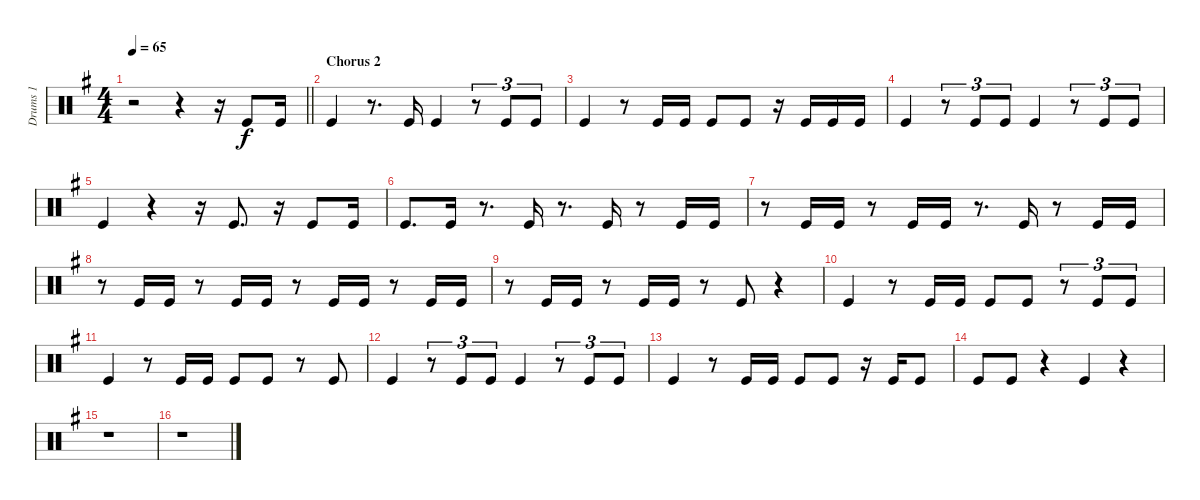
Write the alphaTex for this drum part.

\track ("Drums 1" "Drums 1") {instrument percussion}
\staff {score}
\articulation defaults
\ts (4 4)
\tempo 65
\clef neutral
\barLineRight lightlight
\ks g
r.2{dy f} r.4 r.16 "Kick (hit)".8 "Kick (hit)".16 |
\section ("" "Chorus 2")
"Kick (hit)".4 r.8{d} "Kick (hit)".16 "Kick (hit)".4 r.8{tu (3 2)} "Kick (hit)".8{tu (3 2)} "Kick (hit)".8{tu (3 2)} |
"Kick (hit)".4 r.8 "Kick (hit)".16 "Kick (hit)".16 "Kick (hit)".8 "Kick (hit)".8 r.16 "Kick (hit)".16 "Kick (hit)".16 "Kick (hit)".16 |
"Kick (hit)".4 r.8{tu (3 2)} "Kick (hit)".8{tu (3 2)} "Kick (hit)".8{tu (3 2)} "Kick (hit)".4 r.8{tu (3 2)} "Kick (hit)".8{tu (3 2)} "Kick (hit)".8{tu (3 2)} |
"Kick (hit)".4 r.4 r.16 "Kick (hit)".8{d} r.16 "Kick (hit)".8 "Kick (hit)".16 |
"Kick (hit)".8{d} "Kick (hit)".16 r.8{d} "Kick (hit)".16 r.8{d} "Kick (hit)".16 r.8 "Kick (hit)".16 "Kick (hit)".16 |
r.8 "Kick (hit)".16 "Kick (hit)".16 r.8 "Kick (hit)".16 "Kick (hit)".16 r.8{d} "Kick (hit)".16 r.8 "Kick (hit)".16 "Kick (hit)".16 |
r.8 "Kick (hit)".16 "Kick (hit)".16 r.8 "Kick (hit)".16 "Kick (hit)".16 r.8 "Kick (hit)".16 "Kick (hit)".16 r.8 "Kick (hit)".16 "Kick (hit)".16 |
r.8 "Kick (hit)".16 "Kick (hit)".16 r.8 "Kick (hit)".16 "Kick (hit)".16 r.8 "Kick (hit)".8 r.4 |
"Kick (hit)".4 r.8 "Kick (hit)".16 "Kick (hit)".16 "Kick (hit)".8 "Kick (hit)".8 r.8{tu (3 2)} "Kick (hit)".8{tu (3 2)} "Kick (hit)".8{tu (3 2)} |
"Kick (hit)".4 r.8 "Kick (hit)".16 "Kick (hit)".16 "Kick (hit)".8 "Kick (hit)".8 r.8 "Kick (hit)".8 |
"Kick (hit)".4 r.8{tu (3 2)} "Kick (hit)".8{tu (3 2)} "Kick (hit)".8{tu (3 2)} "Kick (hit)".4 r.8{tu (3 2)} "Kick (hit)".8{tu (3 2)} "Kick (hit)".8{tu (3 2)} |
"Kick (hit)".4 r.8 "Kick (hit)".16 "Kick (hit)".16 "Kick (hit)".8 "Kick (hit)".8 r.16 "Kick (hit)".16 "Kick (hit)".8 |
"Kick (hit)".8 "Kick (hit)".8 r.4 "Kick (hit)".4 r.4 |
r.1 |
r.1
